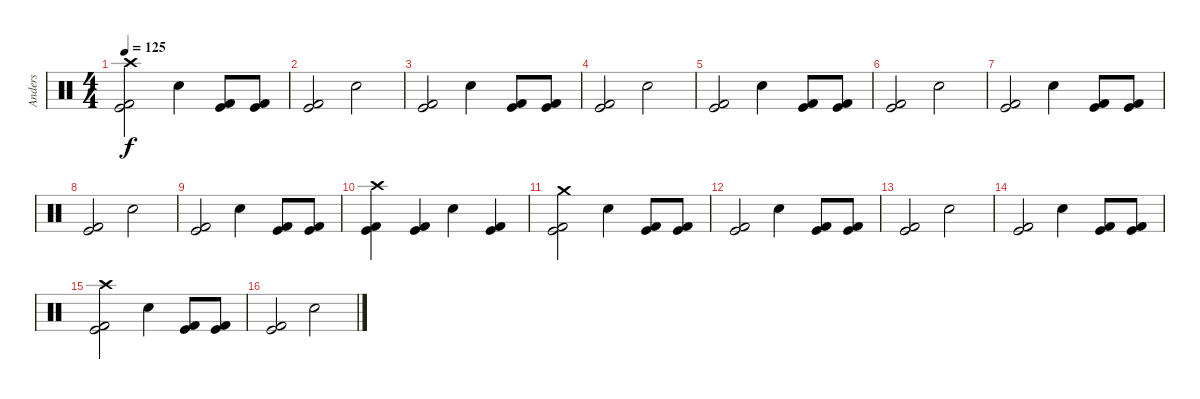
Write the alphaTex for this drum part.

\track ("Anders" "Anders") {instrument percussion}
\staff {score}
\articulation defaults
\ts (4 4)
\tempo 125
\clef neutral
\ks c
("Crash high (hit)" "Kick (hit) 2" "Kick (hit)").2{dy f} "Electric Snare (hit)".4 ("Kick (hit) 2" "Kick (hit)").8 ("Kick (hit) 2" "Kick (hit)").8 |
("Kick (hit) 2" "Kick (hit)").2 "Electric Snare (hit)".2 |
("Kick (hit) 2" "Kick (hit)").2 "Electric Snare (hit)".4 ("Kick (hit) 2" "Kick (hit)").8 ("Kick (hit) 2" "Kick (hit)").8 |
("Kick (hit) 2" "Kick (hit)").2 "Electric Snare (hit)".2 |
("Kick (hit) 2" "Kick (hit)").2 "Electric Snare (hit)".4 ("Kick (hit) 2" "Kick (hit)").8 ("Kick (hit) 2" "Kick (hit)").8 |
("Kick (hit) 2" "Kick (hit)").2 "Electric Snare (hit)".2 |
("Kick (hit) 2" "Kick (hit)").2 "Electric Snare (hit)".4 ("Kick (hit) 2" "Kick (hit)").8 ("Kick (hit) 2" "Kick (hit)").8 |
("Kick (hit) 2" "Kick (hit)").2 "Electric Snare (hit)".2 |
("Kick (hit) 2" "Kick (hit)").2 "Electric Snare (hit)".4 ("Kick (hit) 2" "Kick (hit)").8 ("Kick (hit) 2" "Kick (hit)").8 |
("Crash high (hit)" "Kick (hit) 2" "Kick (hit)").4 ("Kick (hit) 2" "Kick (hit)").4 "Electric Snare (hit)".4 ("Kick (hit) 2" "Kick (hit)").4 |
("Crash medium (hit)" "Kick (hit) 2" "Kick (hit)").2 "Electric Snare (hit)".4 ("Kick (hit) 2" "Kick (hit)").8 ("Kick (hit) 2" "Kick (hit)").8 |
("Kick (hit) 2" "Kick (hit)").2 "Electric Snare (hit)".4 ("Kick (hit) 2" "Kick (hit)").8 ("Kick (hit) 2" "Kick (hit)").8 |
("Kick (hit) 2" "Kick (hit)").2 "Electric Snare (hit)".2 |
("Kick (hit) 2" "Kick (hit)").2 "Electric Snare (hit)".4 ("Kick (hit) 2" "Kick (hit)").8 ("Kick (hit) 2" "Kick (hit)").8 |
("Crash high (hit)" "Kick (hit) 2" "Kick (hit)").2 "Electric Snare (hit)".4 ("Kick (hit) 2" "Kick (hit)").8 ("Kick (hit) 2" "Kick (hit)").8 |
("Kick (hit) 2" "Kick (hit)").2 "Electric Snare (hit)".2
